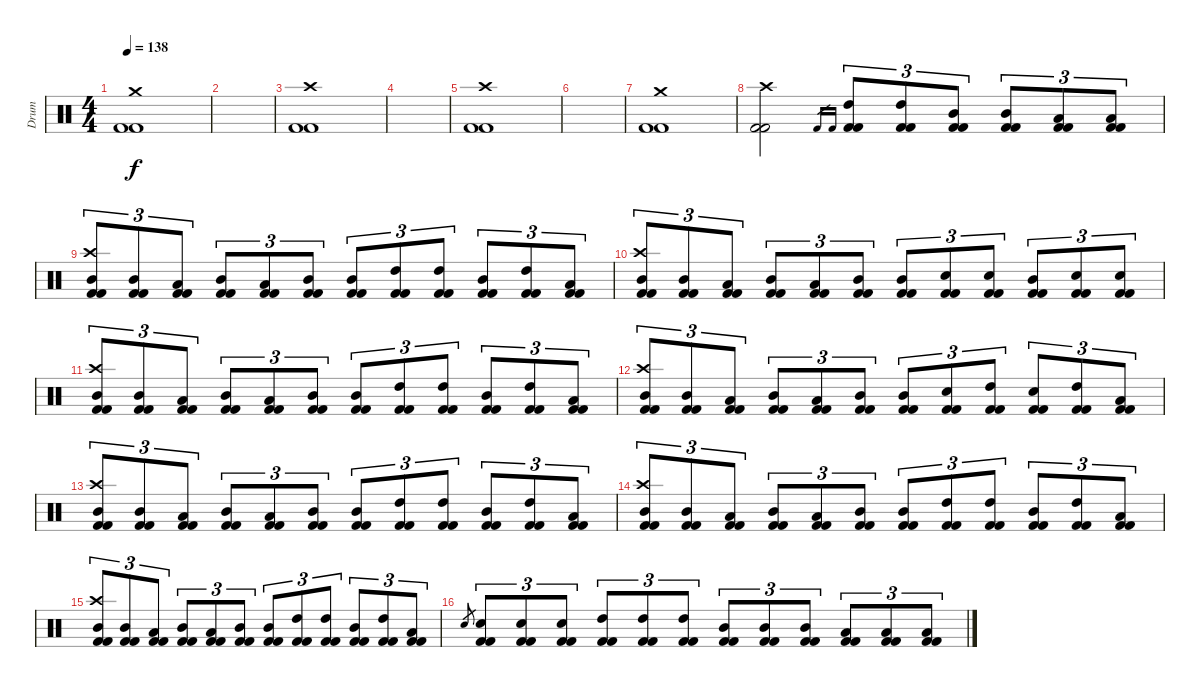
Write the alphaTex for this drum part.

\track ("Drum" "Drum") {instrument percussion}
\staff {score}
\articulation defaults
\ts (4 4)
\tempo 138
\clef neutral
\ks c
("Kick (hit) 2" "Kick (hit) 2" "Crash medium (hit)").1{dy f} |
|
("Kick (hit) 2" "Kick (hit) 2" "Crash high (hit)").1 |
|
("Kick (hit) 2" "Kick (hit) 2" "Crash high (hit)").1 |
|
("Kick (hit) 2" "Kick (hit) 2" "Crash medium (hit)").1 |
("Kick (hit) 2" "Kick (hit) 2" "Crash high (hit)").2 "Kick (hit) 2".16{gr} "Kick (hit) 2".16{gr} ("Kick (hit) 2" "Kick (hit) 2" "High Tom (hit)").8{tu (3 2)} ("Kick (hit) 2" "Kick (hit) 2" "High Tom (hit)").8{tu (3 2)} ("Kick (hit) 2" "Kick (hit) 2" "Mid Tom (hit)").8{tu (3 2)} ("Kick (hit) 2" "Kick (hit) 2" "Mid Tom (hit)").8{tu (3 2)} ("Kick (hit) 2" "Kick (hit) 2" "Low Tom (hit)").8{tu (3 2)} ("Kick (hit) 2" "Kick (hit) 2" "Low Tom (hit)").8{tu (3 2)} |
("Kick (hit) 2" "Kick (hit) 2" "Mid Tom (hit)" "Crash high (hit)").8{tu (3 2)} ("Kick (hit) 2" "Kick (hit) 2" "Mid Tom (hit)").8{tu (3 2)} ("Kick (hit) 2" "Kick (hit) 2" "Low Tom (hit)").8{tu (3 2)} ("Kick (hit) 2" "Kick (hit) 2" "Mid Tom (hit)").8{tu (3 2)} ("Kick (hit) 2" "Kick (hit) 2" "Low Tom (hit)").8{tu (3 2)} ("Kick (hit) 2" "Kick (hit) 2" "Mid Tom (hit)").8{tu (3 2)} ("Kick (hit) 2" "Kick (hit) 2" "Mid Tom (hit)").8{tu (3 2)} ("Kick (hit) 2" "Kick (hit) 2" "High Tom (hit)").8{tu (3 2)} ("Kick (hit) 2" "Kick (hit) 2" "High Tom (hit)").8{tu (3 2)} ("Kick (hit) 2" "Kick (hit) 2" "Mid Tom (hit)").8{tu (3 2)} ("Kick (hit) 2" "Kick (hit) 2" "High Tom (hit)").8{tu (3 2)} ("Kick (hit) 2" "Kick (hit) 2" "Low Tom (hit)").8{tu (3 2)} |
("Kick (hit) 2" "Kick (hit) 2" "Mid Tom (hit)" "Crash high (hit)").8{tu (3 2)} ("Kick (hit) 2" "Kick (hit) 2" "Mid Tom (hit)").8{tu (3 2)} ("Kick (hit) 2" "Kick (hit) 2" "Low Tom (hit)").8{tu (3 2)} ("Kick (hit) 2" "Kick (hit) 2" "Mid Tom (hit)").8{tu (3 2)} ("Kick (hit) 2" "Kick (hit) 2" "Low Tom (hit)").8{tu (3 2)} ("Kick (hit) 2" "Kick (hit) 2" "Mid Tom (hit)").8{tu (3 2)} ("Kick (hit) 2" "Kick (hit) 2" "Mid Tom (hit)").8{tu (3 2)} ("Kick (hit) 2" "Kick (hit) 2" "Electric Snare (hit)").8{tu (3 2)} ("Kick (hit) 2" "Kick (hit) 2" "Electric Snare (hit)").8{tu (3 2)} ("Kick (hit) 2" "Kick (hit) 2" "Mid Tom (hit)").8{tu (3 2)} ("Kick (hit) 2" "Kick (hit) 2" "Electric Snare (hit)").8{tu (3 2)} ("Kick (hit) 2" "Kick (hit) 2" "Electric Snare (hit)").8{tu (3 2)} |
("Kick (hit) 2" "Kick (hit) 2" "Mid Tom (hit)" "Crash high (hit)").8{tu (3 2)} ("Kick (hit) 2" "Kick (hit) 2" "Mid Tom (hit)").8{tu (3 2)} ("Kick (hit) 2" "Kick (hit) 2" "Low Tom (hit)").8{tu (3 2)} ("Kick (hit) 2" "Kick (hit) 2" "Mid Tom (hit)").8{tu (3 2)} ("Kick (hit) 2" "Kick (hit) 2" "Low Tom (hit)").8{tu (3 2)} ("Kick (hit) 2" "Kick (hit) 2" "Mid Tom (hit)").8{tu (3 2)} ("Kick (hit) 2" "Kick (hit) 2" "Mid Tom (hit)").8{tu (3 2)} ("Kick (hit) 2" "Kick (hit) 2" "High Tom (hit)").8{tu (3 2)} ("Kick (hit) 2" "Kick (hit) 2" "High Tom (hit)").8{tu (3 2)} ("Kick (hit) 2" "Kick (hit) 2" "Mid Tom (hit)").8{tu (3 2)} ("Kick (hit) 2" "Kick (hit) 2" "High Tom (hit)").8{tu (3 2)} ("Kick (hit) 2" "Kick (hit) 2" "Low Tom (hit)").8{tu (3 2)} |
("Kick (hit) 2" "Kick (hit) 2" "Mid Tom (hit)" "Crash high (hit)").8{tu (3 2)} ("Kick (hit) 2" "Kick (hit) 2" "Mid Tom (hit)").8{tu (3 2)} ("Kick (hit) 2" "Kick (hit) 2" "Low Tom (hit)").8{tu (3 2)} ("Kick (hit) 2" "Kick (hit) 2" "Mid Tom (hit)").8{tu (3 2)} ("Kick (hit) 2" "Kick (hit) 2" "Low Tom (hit)").8{tu (3 2)} ("Kick (hit) 2" "Kick (hit) 2" "Mid Tom (hit)").8{tu (3 2)} ("Kick (hit) 2" "Kick (hit) 2" "Mid Tom (hit)").8{tu (3 2)} ("Kick (hit) 2" "Kick (hit) 2" "Electric Snare (hit)").8{tu (3 2)} ("Kick (hit) 2" "Kick (hit) 2" "High Tom (hit)").8{tu (3 2)} ("Kick (hit) 2" "Kick (hit) 2" "Electric Snare (hit)").8{tu (3 2)} ("Kick (hit) 2" "Kick (hit) 2" "High Tom (hit)").8{tu (3 2)} ("Kick (hit) 2" "Kick (hit) 2" "Low Tom (hit)").8{tu (3 2)} |
("Kick (hit) 2" "Kick (hit) 2" "Mid Tom (hit)" "Crash high (hit)").8{tu (3 2)} ("Kick (hit) 2" "Kick (hit) 2" "Mid Tom (hit)").8{tu (3 2)} ("Kick (hit) 2" "Kick (hit) 2" "Low Tom (hit)").8{tu (3 2)} ("Kick (hit) 2" "Kick (hit) 2" "Mid Tom (hit)").8{tu (3 2)} ("Kick (hit) 2" "Kick (hit) 2" "Low Tom (hit)").8{tu (3 2)} ("Kick (hit) 2" "Kick (hit) 2" "Mid Tom (hit)").8{tu (3 2)} ("Kick (hit) 2" "Kick (hit) 2" "Mid Tom (hit)").8{tu (3 2)} ("Kick (hit) 2" "Kick (hit) 2" "High Tom (hit)").8{tu (3 2)} ("Kick (hit) 2" "Kick (hit) 2" "High Tom (hit)").8{tu (3 2)} ("Kick (hit) 2" "Kick (hit) 2" "Mid Tom (hit)").8{tu (3 2)} ("Kick (hit) 2" "Kick (hit) 2" "High Tom (hit)").8{tu (3 2)} ("Kick (hit) 2" "Kick (hit) 2" "Low Tom (hit)").8{tu (3 2)} |
("Kick (hit) 2" "Kick (hit) 2" "Mid Tom (hit)" "Crash high (hit)").8{tu (3 2)} ("Kick (hit) 2" "Kick (hit) 2" "Mid Tom (hit)").8{tu (3 2)} ("Kick (hit) 2" "Kick (hit) 2" "Low Tom (hit)").8{tu (3 2)} ("Kick (hit) 2" "Kick (hit) 2" "Mid Tom (hit)").8{tu (3 2)} ("Kick (hit) 2" "Kick (hit) 2" "Low Tom (hit)").8{tu (3 2)} ("Kick (hit) 2" "Kick (hit) 2" "Mid Tom (hit)").8{tu (3 2)} ("Kick (hit) 2" "Kick (hit) 2" "Mid Tom (hit)").8{tu (3 2)} ("Kick (hit) 2" "Kick (hit) 2" "High Tom (hit)").8{tu (3 2)} ("Kick (hit) 2" "Kick (hit) 2" "High Tom (hit)").8{tu (3 2)} ("Kick (hit) 2" "Kick (hit) 2" "Mid Tom (hit)").8{tu (3 2)} ("Kick (hit) 2" "Kick (hit) 2" "High Tom (hit)").8{tu (3 2)} ("Kick (hit) 2" "Kick (hit) 2" "Low Tom (hit)").8{tu (3 2)} |
("Kick (hit) 2" "Kick (hit) 2" "Mid Tom (hit)" "Crash high (hit)").8{tu (3 2)} ("Kick (hit) 2" "Kick (hit) 2" "Mid Tom (hit)").8{tu (3 2)} ("Kick (hit) 2" "Kick (hit) 2" "Low Tom (hit)").8{tu (3 2)} ("Kick (hit) 2" "Kick (hit) 2" "Mid Tom (hit)").8{tu (3 2)} ("Kick (hit) 2" "Kick (hit) 2" "Low Tom (hit)").8{tu (3 2)} ("Kick (hit) 2" "Kick (hit) 2" "Mid Tom (hit)").8{tu (3 2)} ("Kick (hit) 2" "Kick (hit) 2" "Mid Tom (hit)").8{tu (3 2)} ("Kick (hit) 2" "Kick (hit) 2" "High Tom (hit)").8{tu (3 2)} ("Kick (hit) 2" "Kick (hit) 2" "High Tom (hit)").8{tu (3 2)} ("Kick (hit) 2" "Kick (hit) 2" "Mid Tom (hit)").8{tu (3 2)} ("Kick (hit) 2" "Kick (hit) 2" "High Tom (hit)").8{tu (3 2)} ("Kick (hit) 2" "Kick (hit) 2" "Low Tom (hit)").8{tu (3 2)} |
"Electric Snare (hit)".8{gr} ("Kick (hit) 2" "Kick (hit) 2" "Electric Snare (hit)").8{tu (3 2)} ("Kick (hit) 2" "Kick (hit) 2" "Electric Snare (hit)").8{tu (3 2)} ("Kick (hit) 2" "Kick (hit) 2" "Electric Snare (hit)").8{tu (3 2)} ("Kick (hit) 2" "Kick (hit) 2" "High Tom (hit)").8{tu (3 2)} ("Kick (hit) 2" "Kick (hit) 2" "High Tom (hit)").8{tu (3 2)} ("Kick (hit) 2" "Kick (hit) 2" "High Tom (hit)").8{tu (3 2)} ("Kick (hit) 2" "Kick (hit) 2" "Mid Tom (hit)").8{tu (3 2)} ("Kick (hit) 2" "Kick (hit) 2" "Mid Tom (hit)").8{tu (3 2)} ("Kick (hit) 2" "Kick (hit) 2" "Mid Tom (hit)").8{tu (3 2)} ("Kick (hit) 2" "Kick (hit) 2" "Low Tom (hit)").8{tu (3 2)} ("Kick (hit) 2" "Kick (hit) 2" "Low Tom (hit)").8{tu (3 2)} ("Kick (hit) 2" "Kick (hit) 2" "Low Tom (hit)").8{tu (3 2)}
